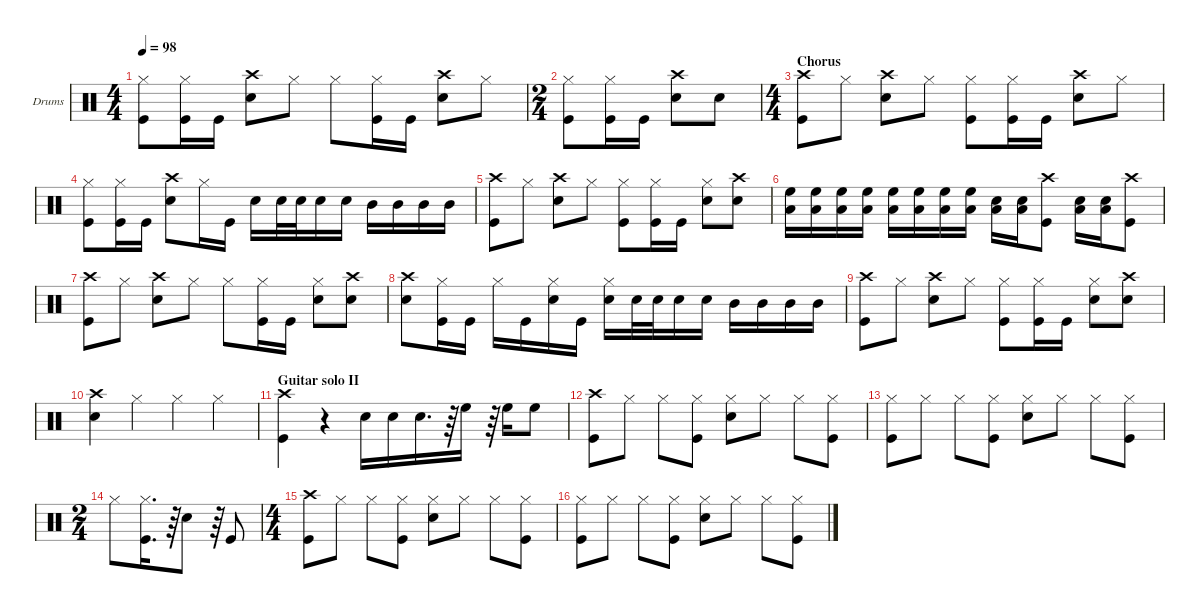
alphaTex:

\hideDynamics
\bracketExtendMode groupsimilarinstruments
\firstSystemTrackNameOrientation horizontal
\otherSystemsTrackNameOrientation horizontal
\track ("Drumkit" "Drums") {multiBarRest instrument percussion}
\staff {score}
\articulation defaults
\ts (4 4)
\tempo 98
\clef neutral
\ks c
("Hi-Hat (closed)" "Kick (hit)").8{dy f} ("Hi-Hat (closed)" "Kick (hit)").16 "Kick (hit)".16 ("Crash high (hit)" "Snare (hit) 2").8 "Hi-Hat (closed)".8 "Hi-Hat (closed)".8 ("Hi-Hat (closed)" "Kick (hit)").16 "Kick (hit)".16 ("Crash high (hit)" "Snare (hit) 2").8 "Hi-Hat (closed)".8 |
\ts (2 4)
("Hi-Hat (closed)" "Kick (hit)").8 ("Hi-Hat (closed)" "Kick (hit)").16 "Kick (hit)".16 ("Crash high (hit)" "Snare (hit) 2").8 "Snare (hit) 2".8 |
\ts (4 4)
\section ("" "Chorus")
("Crash high (hit)" "Kick (hit)").8 "Hi-Hat (closed)".8 ("Crash high (hit)" "Snare (hit) 2").8 "Hi-Hat (closed)".8 ("Kick (hit)" "Hi-Hat (closed)").8 ("Kick (hit)" "Hi-Hat (closed)").16 "Kick (hit)".16 ("Crash high (hit)" "Snare (hit) 2").8 "Hi-Hat (closed)".8 |
("Hi-Hat (closed)" "Kick (hit)").8 ("Hi-Hat (closed)" "Kick (hit)").16 "Kick (hit)".16 ("Crash high (hit)" "Snare (hit) 2").8 "Hi-Hat (closed)".16 "Kick (hit)".16 "Snare (hit) 2".16 "Snare (hit) 2".32 "Snare (hit) 2".32 "Snare (hit) 2".16 "Snare (hit) 2".16 "Mid Tom (hit)".16 "Mid Tom (hit)".16 "Mid Tom (hit)".16 "Mid Tom (hit)".16 |
("Crash high (hit)" "Kick (hit)").8 "Hi-Hat (closed)".8 ("Crash high (hit)" "Snare (hit) 2").8 "Hi-Hat (closed)".8 ("Hi-Hat (closed)" "Kick (hit)").8 ("Hi-Hat (closed)" "Kick (hit)").16 "Kick (hit)".16 ("Snare (hit) 2" "Hi-Hat (closed)").8 ("Crash high (hit)" "Snare (hit) 2").8 |
("High Floor Tom (hit)" "Low Tom (hit)").16 ("High Floor Tom (hit)" "Low Tom (hit)").16 ("High Floor Tom (hit)" "Low Tom (hit)").16 ("High Floor Tom (hit)" "Low Tom (hit)").16 ("High Floor Tom (hit)" "Low Tom (hit)").16 ("High Floor Tom (hit)" "Low Tom (hit)").16 ("High Floor Tom (hit)" "Low Tom (hit)").16 ("High Floor Tom (hit)" "Low Tom (hit)").16 ("Snare (hit) 2" "Low Tom (hit)").16 ("Snare (hit) 2" "Low Tom (hit)").16 ("Kick (hit)" "Crash high (hit)").8 ("Snare (hit) 2" "Low Tom (hit)").16 ("Snare (hit) 2" "Low Tom (hit)").16 ("Crash high (hit)" "Kick (hit)").8 |
("Kick (hit)" "Crash high (hit)").8 "Hi-Hat (closed)".8 ("Crash high (hit)" "Snare (hit) 2").8 "Hi-Hat (closed)".8 "Hi-Hat (closed)".8 ("Hi-Hat (closed)" "Kick (hit)").16 "Kick (hit)".16 ("Snare (hit) 2" "Hi-Hat (closed)").8 ("Crash high (hit)" "Snare (hit) 2").8 |
("Snare (hit) 2" "Crash high (hit)").8 ("Hi-Hat (closed)" "Kick (hit)").16 "Kick (hit)".16 "Hi-Hat (closed)".16 "Kick (hit)".16 ("Snare (hit) 2" "Hi-Hat (closed)").16 "Kick (hit)".16 ("Snare (hit) 2" "Hi-Hat (closed)").16 "Snare (hit) 2".32 "Snare (hit) 2".32 "Snare (hit) 2".16 "Snare (hit) 2".16 "Mid Tom (hit)".16 "Mid Tom (hit)".16 "Mid Tom (hit)".16 "Mid Tom (hit)".16 |
("Crash high (hit)" "Kick (hit)").8 "Hi-Hat (closed)".8 ("Crash high (hit)" "Snare (hit) 2").8 "Hi-Hat (closed)".8 ("Kick (hit)" "Hi-Hat (closed)").8 ("Kick (hit)" "Hi-Hat (closed)").16 "Kick (hit)".16 ("Snare (hit) 2" "Hi-Hat (closed)").8 ("Crash high (hit)" "Snare (hit) 2").8 |
("Crash high (hit)" "Snare (hit) 2").4 "Hi-Hat (closed)".4 "Hi-Hat (closed)".4 "Hi-Hat (closed)".4 |
\section ("" "Guitar solo II")
("Kick (hit)" "Crash high (hit)").4 r.4 "Snare (hit) 2".16 "Snare (hit) 2".16 "Snare (hit) 2".16{d} r.64 "High Floor Tom (hit)".16 r.64 "High Floor Tom (hit)".16 "High Floor Tom (hit)".8 |
("Crash high (hit)" "Kick (hit)").8 "Hi-Hat (closed)".8 "Hi-Hat (closed)".8 ("Kick (hit)" "Hi-Hat (closed)").8 ("Hi-Hat (closed)" "Snare (hit) 2").8 "Hi-Hat (closed)".8 "Hi-Hat (closed)".8 ("Kick (hit)" "Hi-Hat (closed)").8 |
("Hi-Hat (closed)" "Kick (hit)").8 "Hi-Hat (closed)".8 "Hi-Hat (closed)".8 ("Hi-Hat (closed)" "Kick (hit)").8 ("Snare (hit) 2" "Hi-Hat (closed)").8 "Hi-Hat (closed)".8 "Hi-Hat (closed)".8 ("Kick (hit)" "Hi-Hat (closed)").8 |
\ts (2 4)
"Hi-Hat (closed)".8 ("Kick (hit)" "Hi-Hat (closed)").16{d} r.64 "Snare (hit) 2".8 r.64 "Kick (hit)".8 |
\ts (4 4)
("Crash high (hit)" "Kick (hit)").8 "Hi-Hat (closed)".8 "Hi-Hat (closed)".8 ("Kick (hit)" "Hi-Hat (closed)").8 ("Hi-Hat (closed)" "Snare (hit) 2").8 "Hi-Hat (closed)".8 "Hi-Hat (closed)".8 ("Kick (hit)" "Hi-Hat (closed)").8 |
("Hi-Hat (closed)" "Kick (hit)").8 "Hi-Hat (closed)".8 "Hi-Hat (closed)".8 ("Hi-Hat (closed)" "Kick (hit)").8 ("Snare (hit) 2" "Hi-Hat (closed)").8 "Hi-Hat (closed)".8 "Hi-Hat (closed)".8 ("Kick (hit)" "Hi-Hat (closed)").8
